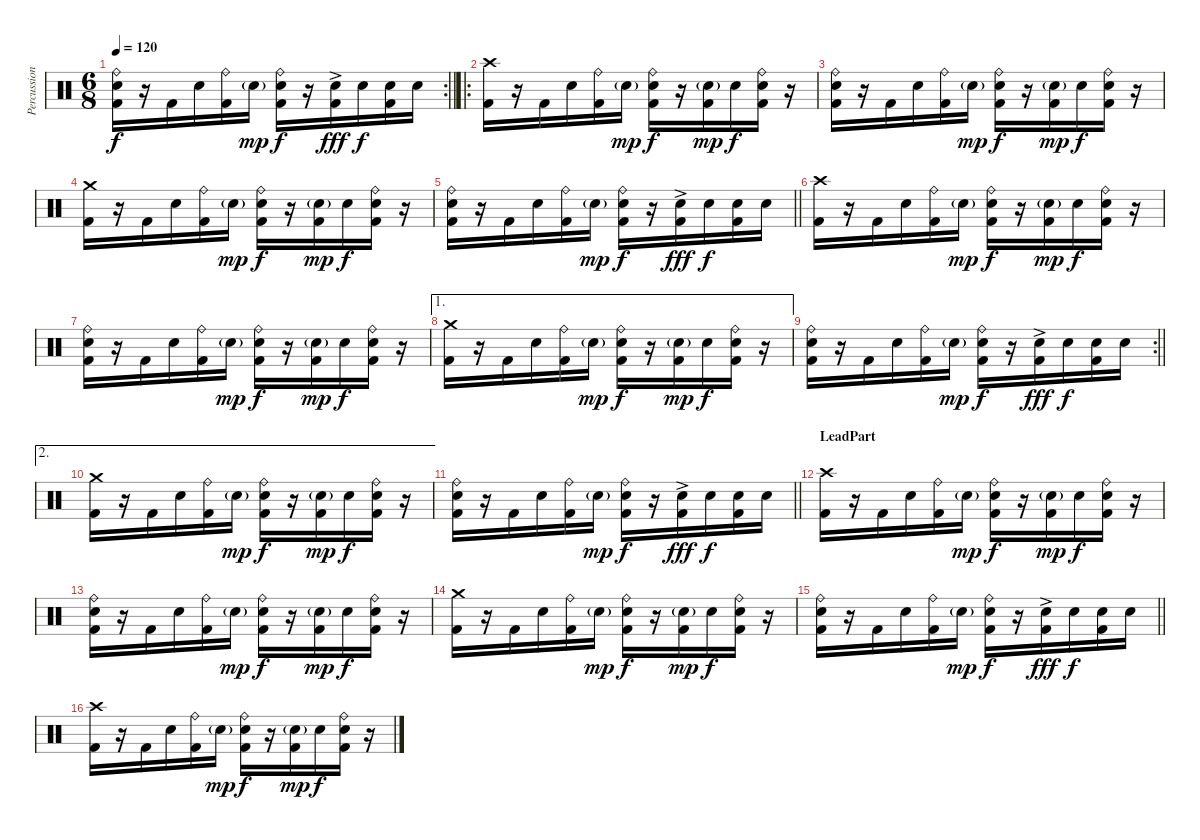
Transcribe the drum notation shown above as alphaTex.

\track ("Percussion" "Percussion") {instrument percussion}
\staff {score}
\articulation defaults
\rc 2
\ts (6 8)
\tempo 120
\clef neutral
\barLineRight lightlight
\ks c
("Ride (bell)" "Snare (hit) 2" "Kick (hit) 2").16{dy f} r.16 "Kick (hit) 2".16 "Snare (hit) 2".16 ("Ride (bell)" "Kick (hit) 2").16 "Snare (hit) 2"{g}.16{dy mp} ("Ride (bell)" "Snare (hit) 2" "Kick (hit) 2").16{dy f} r.16 ("Snare (hit) 2"{ac} "Kick (hit) 2").16{dy fff} "Snare (hit) 2".16{dy f} ("Snare (hit) 2" "Kick (hit) 2").16 "Snare (hit) 2".16 |
\ro
("Crash high (hit)" "Kick (hit) 2").16 r.16 "Kick (hit) 2".16 "Snare (hit) 2".16 ("Ride (bell)" "Kick (hit) 2").16 "Snare (hit) 2"{g}.16{dy mp} ("Ride (bell)" "Snare (hit) 2" "Kick (hit) 2").16{dy f} r.16 ("Snare (hit) 2"{g} "Kick (hit) 2").16{dy mp} "Snare (hit) 2".16{dy f} ("Ride (bell)" "Snare (hit) 2" "Kick (hit) 2").16 r.16 |
("Ride (bell)" "Snare (hit) 2" "Kick (hit) 2").16 r.16 "Kick (hit) 2".16 "Snare (hit) 2".16 ("Ride (bell)" "Kick (hit) 2").16 "Snare (hit) 2"{g}.16{dy mp} ("Ride (bell)" "Snare (hit) 2" "Kick (hit) 2").16{dy f} r.16 ("Snare (hit) 2"{g} "Kick (hit) 2").16{dy mp} "Snare (hit) 2".16{dy f} ("Ride (bell)" "Snare (hit) 2" "Kick (hit) 2").16 r.16 |
("Crash medium (hit)" "Kick (hit) 2").16 r.16 "Kick (hit) 2".16 "Snare (hit) 2".16 ("Ride (bell)" "Kick (hit) 2").16 "Snare (hit) 2"{g}.16{dy mp} ("Ride (bell)" "Snare (hit) 2" "Kick (hit) 2").16{dy f} r.16 ("Snare (hit) 2"{g} "Kick (hit) 2").16{dy mp} "Snare (hit) 2".16{dy f} ("Ride (bell)" "Snare (hit) 2" "Kick (hit) 2").16 r.16 |
\barLineRight lightlight
("Ride (bell)" "Snare (hit) 2" "Kick (hit) 2").16 r.16 "Kick (hit) 2".16 "Snare (hit) 2".16 ("Ride (bell)" "Kick (hit) 2").16 "Snare (hit) 2"{g}.16{dy mp} ("Ride (bell)" "Snare (hit) 2" "Kick (hit) 2").16{dy f} r.16 ("Snare (hit) 2"{ac} "Kick (hit) 2").16{dy fff} "Snare (hit) 2".16{dy f} ("Snare (hit) 2" "Kick (hit) 2").16 "Snare (hit) 2".16 |
("Crash high (hit)" "Kick (hit) 2").16 r.16 "Kick (hit) 2".16 "Snare (hit) 2".16 ("Ride (bell)" "Kick (hit) 2").16 "Snare (hit) 2"{g}.16{dy mp} ("Ride (bell)" "Snare (hit) 2" "Kick (hit) 2").16{dy f} r.16 ("Snare (hit) 2"{g} "Kick (hit) 2").16{dy mp} "Snare (hit) 2".16{dy f} ("Ride (bell)" "Snare (hit) 2" "Kick (hit) 2").16 r.16 |
("Ride (bell)" "Snare (hit) 2" "Kick (hit) 2").16 r.16 "Kick (hit) 2".16 "Snare (hit) 2".16 ("Ride (bell)" "Kick (hit) 2").16 "Snare (hit) 2"{g}.16{dy mp} ("Ride (bell)" "Snare (hit) 2" "Kick (hit) 2").16{dy f} r.16 ("Snare (hit) 2"{g} "Kick (hit) 2").16{dy mp} "Snare (hit) 2".16{dy f} ("Ride (bell)" "Snare (hit) 2" "Kick (hit) 2").16 r.16 |
\ae 1
("Crash medium (hit)" "Kick (hit) 2").16 r.16 "Kick (hit) 2".16 "Snare (hit) 2".16 ("Ride (bell)" "Kick (hit) 2").16 "Snare (hit) 2"{g}.16{dy mp} ("Ride (bell)" "Snare (hit) 2" "Kick (hit) 2").16{dy f} r.16 ("Snare (hit) 2"{g} "Kick (hit) 2").16{dy mp} "Snare (hit) 2".16{dy f} ("Ride (bell)" "Snare (hit) 2" "Kick (hit) 2").16 r.16 |
\rc 2
\barLineRight lightlight
("Ride (bell)" "Snare (hit) 2" "Kick (hit) 2").16 r.16 "Kick (hit) 2".16 "Snare (hit) 2".16 ("Ride (bell)" "Kick (hit) 2").16 "Snare (hit) 2"{g}.16{dy mp} ("Ride (bell)" "Snare (hit) 2" "Kick (hit) 2").16{dy f} r.16 ("Snare (hit) 2"{ac} "Kick (hit) 2").16{dy fff} "Snare (hit) 2".16{dy f} ("Snare (hit) 2" "Kick (hit) 2").16 "Snare (hit) 2".16 |
\ae 2
("Crash medium (hit)" "Kick (hit) 2").16 r.16 "Kick (hit) 2".16 "Snare (hit) 2".16 ("Ride (bell)" "Kick (hit) 2").16 "Snare (hit) 2"{g}.16{dy mp} ("Ride (bell)" "Snare (hit) 2" "Kick (hit) 2").16{dy f} r.16 ("Snare (hit) 2"{g} "Kick (hit) 2").16{dy mp} "Snare (hit) 2".16{dy f} ("Ride (bell)" "Snare (hit) 2" "Kick (hit) 2").16 r.16 |
\barLineRight lightlight
("Ride (bell)" "Snare (hit) 2" "Kick (hit) 2").16 r.16 "Kick (hit) 2".16 "Snare (hit) 2".16 ("Ride (bell)" "Kick (hit) 2").16 "Snare (hit) 2"{g}.16{dy mp} ("Ride (bell)" "Snare (hit) 2" "Kick (hit) 2").16{dy f} r.16 ("Snare (hit) 2"{ac} "Kick (hit) 2").16{dy fff} "Snare (hit) 2".16{dy f} ("Snare (hit) 2" "Kick (hit) 2").16 "Snare (hit) 2".16 |
\section ("" "LeadPart")
("Crash high (hit)" "Kick (hit) 2").16 r.16 "Kick (hit) 2".16 "Snare (hit) 2".16 ("Ride (bell)" "Kick (hit) 2").16 "Snare (hit) 2"{g}.16{dy mp} ("Ride (bell)" "Snare (hit) 2" "Kick (hit) 2").16{dy f} r.16 ("Snare (hit) 2"{g} "Kick (hit) 2").16{dy mp} "Snare (hit) 2".16{dy f} ("Ride (bell)" "Snare (hit) 2" "Kick (hit) 2").16 r.16 |
("Ride (bell)" "Snare (hit) 2" "Kick (hit) 2").16 r.16 "Kick (hit) 2".16 "Snare (hit) 2".16 ("Ride (bell)" "Kick (hit) 2").16 "Snare (hit) 2"{g}.16{dy mp} ("Ride (bell)" "Snare (hit) 2" "Kick (hit) 2").16{dy f} r.16 ("Snare (hit) 2"{g} "Kick (hit) 2").16{dy mp} "Snare (hit) 2".16{dy f} ("Ride (bell)" "Snare (hit) 2" "Kick (hit) 2").16 r.16 |
("Crash medium (hit)" "Kick (hit) 2").16 r.16 "Kick (hit) 2".16 "Snare (hit) 2".16 ("Ride (bell)" "Kick (hit) 2").16 "Snare (hit) 2"{g}.16{dy mp} ("Ride (bell)" "Snare (hit) 2" "Kick (hit) 2").16{dy f} r.16 ("Snare (hit) 2"{g} "Kick (hit) 2").16{dy mp} "Snare (hit) 2".16{dy f} ("Ride (bell)" "Snare (hit) 2" "Kick (hit) 2").16 r.16 |
\barLineRight lightlight
("Ride (bell)" "Snare (hit) 2" "Kick (hit) 2").16 r.16 "Kick (hit) 2".16 "Snare (hit) 2".16 ("Ride (bell)" "Kick (hit) 2").16 "Snare (hit) 2"{g}.16{dy mp} ("Ride (bell)" "Snare (hit) 2" "Kick (hit) 2").16{dy f} r.16 ("Snare (hit) 2"{ac} "Kick (hit) 2").16{dy fff} "Snare (hit) 2".16{dy f} ("Snare (hit) 2" "Kick (hit) 2").16 "Snare (hit) 2".16 |
("Crash high (hit)" "Kick (hit) 2").16 r.16 "Kick (hit) 2".16 "Snare (hit) 2".16 ("Ride (bell)" "Kick (hit) 2").16 "Snare (hit) 2"{g}.16{dy mp} ("Ride (bell)" "Snare (hit) 2" "Kick (hit) 2").16{dy f} r.16 ("Snare (hit) 2"{g} "Kick (hit) 2").16{dy mp} "Snare (hit) 2".16{dy f} ("Ride (bell)" "Snare (hit) 2" "Kick (hit) 2").16 r.16
